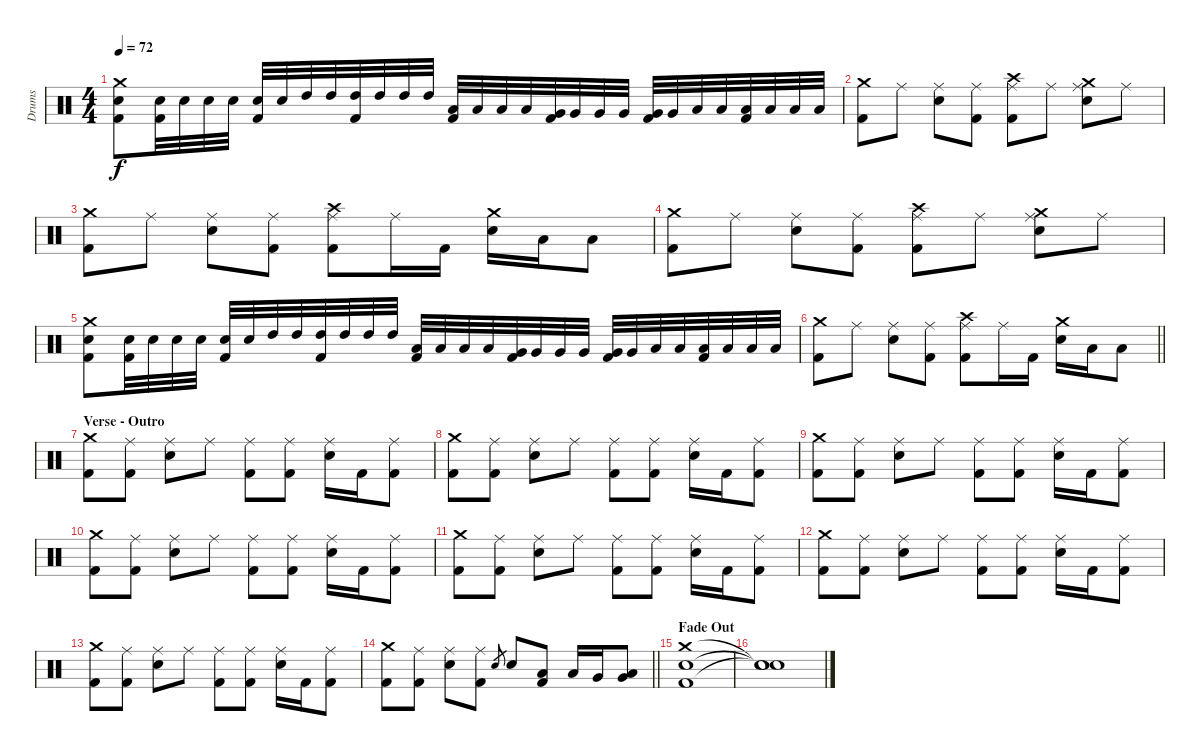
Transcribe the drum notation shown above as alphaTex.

\track ("Drums" "Drums") {instrument percussion}
\staff {score}
\articulation defaults
\ts (4 4)
\tempo 72
\clef neutral
\ks c
("Crash medium (hit)" "Electric Snare (hit)" "Kick (hit) 2").8{dy f} ("Electric Snare (hit)" "Kick (hit) 2").32 "Electric Snare (hit)".32 "Electric Snare (hit)".32 "Electric Snare (hit)".32 ("Electric Snare (hit)" "Kick (hit) 2").32 "Electric Snare (hit)".32 "High Tom (hit)".32 "High Tom (hit)".32 ("High Tom (hit)" "Kick (hit) 2").32 "High Tom (hit)".32 "High Tom (hit)".32 "High Tom (hit)".32 ("Low Tom (hit)" "Kick (hit) 2").32 "Low Tom (hit)".32 "Low Tom (hit)".32 "Low Tom (hit)".32 ("Very Low Tom (hit)" "Kick (hit) 2").32 "Very Low Tom (hit)".32 "Very Low Tom (hit)".32 "Very Low Tom (hit)".32 ("Very Low Tom (hit)" "Kick (hit) 2").32 "Very Low Tom (hit)".32 "Low Floor Tom (hit)".32 "Low Floor Tom (hit)".32 ("Low Floor Tom (hit)" "Kick (hit) 2").32 "Low Floor Tom (hit)".32 "Low Floor Tom (hit)".32 "Low Floor Tom (hit)".32 |
("Crash medium (hit)" "Kick (hit) 2").8 "Ride (middle)".8 ("Ride (middle)" "Electric Snare (hit)").8 ("Ride (middle)" "Kick (hit) 2").8 ("Crash high (hit)" "Ride (middle)" "Kick (hit) 2").8 "Ride (middle)".8 ("Crash medium (hit)" "Ride (middle)" "Electric Snare (hit)").8 "Ride (middle)".8 |
("Crash medium (hit)" "Kick (hit) 2").8 "Ride (middle)".8 ("Ride (middle)" "Electric Snare (hit)").8 ("Ride (middle)" "Kick (hit) 2").8 ("Crash high (hit)" "Ride (middle)" "Kick (hit) 2").8 "Ride (middle)".16 "Kick (hit) 2".16 ("Crash medium (hit)" "Electric Snare (hit)").16 "Low Tom (hit)".16 "Low Tom (hit)".8 |
("Crash medium (hit)" "Kick (hit) 2").8 "Ride (middle)".8 ("Ride (middle)" "Electric Snare (hit)").8 ("Ride (middle)" "Kick (hit) 2").8 ("Crash high (hit)" "Ride (middle)" "Kick (hit) 2").8 "Ride (middle)".8 ("Crash medium (hit)" "Ride (middle)" "Electric Snare (hit)").8 "Ride (middle)".8 |
("Crash medium (hit)" "Electric Snare (hit)" "Kick (hit) 2").8 ("Electric Snare (hit)" "Kick (hit) 2").32 "Electric Snare (hit)".32 "Electric Snare (hit)".32 "Electric Snare (hit)".32 ("Electric Snare (hit)" "Kick (hit) 2").32 "Electric Snare (hit)".32 "High Tom (hit)".32 "High Tom (hit)".32 ("High Tom (hit)" "Kick (hit) 2").32 "High Tom (hit)".32 "High Tom (hit)".32 "High Tom (hit)".32 ("Low Tom (hit)" "Kick (hit) 2").32 "Low Tom (hit)".32 "Low Tom (hit)".32 "Low Tom (hit)".32 ("Very Low Tom (hit)" "Kick (hit) 2").32 "Very Low Tom (hit)".32 "Very Low Tom (hit)".32 "Very Low Tom (hit)".32 ("Very Low Tom (hit)" "Kick (hit) 2").32 "Very Low Tom (hit)".32 "Low Floor Tom (hit)".32 "Low Floor Tom (hit)".32 ("Low Floor Tom (hit)" "Kick (hit) 2").32 "Low Floor Tom (hit)".32 "Low Floor Tom (hit)".32 "Low Floor Tom (hit)".32 |
\barLineRight lightlight
("Crash medium (hit)" "Kick (hit) 2").8 "Ride (middle)".8 ("Ride (middle)" "Electric Snare (hit)").8 ("Ride (middle)" "Kick (hit) 2").8 ("Crash high (hit)" "Ride (middle)" "Kick (hit) 2").8 "Ride (middle)".16 "Kick (hit) 2".16 ("Crash medium (hit)" "Electric Snare (hit)").16 "Low Tom (hit)".16 "Low Tom (hit)".8 |
\section ("" "Verse - Outro")
("Crash medium (hit)" "Kick (hit) 2").8 ("Ride (middle)" "Kick (hit) 2").8 ("Ride (middle)" "Electric Snare (hit)").8 "Ride (middle)".8 ("Ride (middle)" "Kick (hit) 2").8 ("Ride (middle)" "Kick (hit) 2").8 ("Ride (middle)" "Electric Snare (hit)").16 "Kick (hit) 2".16 ("Ride (middle)" "Kick (hit) 2").8 |
("Crash medium (hit)" "Kick (hit) 2").8 ("Ride (middle)" "Kick (hit) 2").8 ("Ride (middle)" "Electric Snare (hit)").8 "Ride (middle)".8 ("Ride (middle)" "Kick (hit) 2").8 ("Ride (middle)" "Kick (hit) 2").8 ("Ride (middle)" "Electric Snare (hit)").16 "Kick (hit) 2".16 ("Ride (middle)" "Kick (hit) 2").8 |
("Crash medium (hit)" "Kick (hit) 2").8 ("Ride (middle)" "Kick (hit) 2").8 ("Ride (middle)" "Electric Snare (hit)").8 "Ride (middle)".8 ("Ride (middle)" "Kick (hit) 2").8 ("Ride (middle)" "Kick (hit) 2").8 ("Ride (middle)" "Electric Snare (hit)").16 "Kick (hit) 2".16 ("Ride (middle)" "Kick (hit) 2").8 |
("Crash medium (hit)" "Kick (hit) 2").8 ("Ride (middle)" "Kick (hit) 2").8 ("Ride (middle)" "Electric Snare (hit)").8 "Ride (middle)".8 ("Ride (middle)" "Kick (hit) 2").8 ("Ride (middle)" "Kick (hit) 2").8 ("Ride (middle)" "Electric Snare (hit)").16 "Kick (hit) 2".16 ("Ride (middle)" "Kick (hit) 2").8 |
("Crash medium (hit)" "Kick (hit) 2").8 ("Ride (middle)" "Kick (hit) 2").8 ("Ride (middle)" "Electric Snare (hit)").8 "Ride (middle)".8 ("Ride (middle)" "Kick (hit) 2").8 ("Ride (middle)" "Kick (hit) 2").8 ("Ride (middle)" "Electric Snare (hit)").16 "Kick (hit) 2".16 ("Ride (middle)" "Kick (hit) 2").8 |
("Crash medium (hit)" "Kick (hit) 2").8 ("Ride (middle)" "Kick (hit) 2").8 ("Ride (middle)" "Electric Snare (hit)").8 "Ride (middle)".8 ("Ride (middle)" "Kick (hit) 2").8 ("Ride (middle)" "Kick (hit) 2").8 ("Ride (middle)" "Electric Snare (hit)").16 "Kick (hit) 2".16 ("Ride (middle)" "Kick (hit) 2").8 |
("Crash medium (hit)" "Kick (hit) 2").8 ("Ride (middle)" "Kick (hit) 2").8 ("Ride (middle)" "Electric Snare (hit)").8 "Ride (middle)".8 ("Ride (middle)" "Kick (hit) 2").8 ("Ride (middle)" "Kick (hit) 2").8 ("Ride (middle)" "Electric Snare (hit)").16 "Kick (hit) 2".16 ("Ride (middle)" "Kick (hit) 2").8 |
\barLineRight lightlight
("Crash medium (hit)" "Kick (hit) 2").8 ("Ride (middle)" "Kick (hit) 2").8 ("Ride (middle)" "Electric Snare (hit)").8 ("Ride (middle)" "Kick (hit) 2").8 "Electric Snare (hit)"{h}.8{gr} "Electric Snare (hit)".8 ("Low Tom (hit)" "Kick (hit) 2").8 "Low Tom (hit)".16 "Very Low Tom (hit)".16 ("Low Floor Tom (hit)" "Very Low Tom (hit)").8 |
\section ("" "Fade Out")
("Crash medium (hit)" "Electric Snare (hit)" "Kick (hit) 2").1 |
("Snare (hit)"{t} "Snare (hit)"{t} "Snare (hit)"{t}).1
